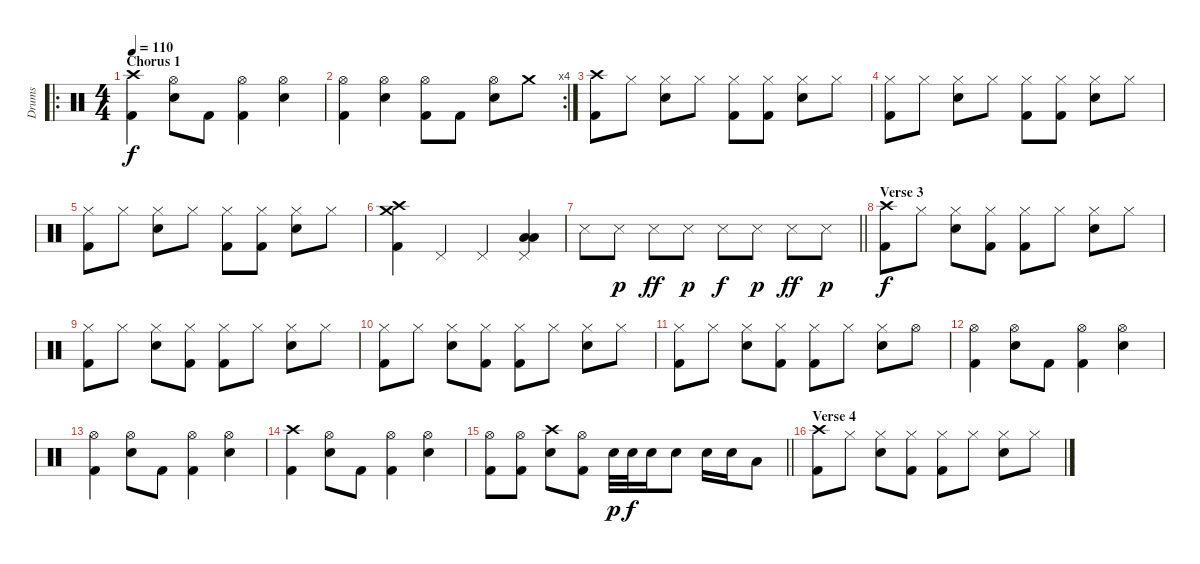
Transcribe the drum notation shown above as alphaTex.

\track ("Drums" "Drums") {instrument percussion bank 10}
\staff {score}
\articulation defaults
\ro
\ts (4 4)
\section ("" "Chorus 1")
\tempo 110
\clef neutral
\ks c
("Crash high (hit)" "Kick (hit) 2").4{dy f} ("Hi-Hat (open)" "Snare (hit) 2").8 "Kick (hit) 2".8 ("Hi-Hat (open)" "Kick (hit) 2").4 ("Hi-Hat (open)" "Snare (hit) 2").4 |
\rc 4
("Hi-Hat (open)" "Kick (hit) 2").4 ("Hi-Hat (open)" "Snare (hit) 2").4 ("Hi-Hat (open)" "Kick (hit) 2").8 "Kick (hit) 2".8 ("Hi-Hat (open)" "Snare (hit) 2").8 "Crash medium (hit)".8 |
("Kick (hit) 2" "Crash high (hit)").8 "Hi-Hat (closed)".8 ("Hi-Hat (closed)" "Snare (hit) 2").8 "Hi-Hat (closed)".8 ("Hi-Hat (closed)" "Kick (hit) 2").8 ("Hi-Hat (closed)" "Kick (hit) 2").8 ("Hi-Hat (closed)" "Snare (hit) 2").8 "Hi-Hat (closed)".8 |
("Kick (hit) 2" "Hi-Hat (closed)").8 "Hi-Hat (closed)".8 ("Hi-Hat (closed)" "Snare (hit) 2").8 "Hi-Hat (closed)".8 ("Hi-Hat (closed)" "Kick (hit) 2").8 ("Hi-Hat (closed)" "Kick (hit) 2").8 ("Hi-Hat (closed)" "Snare (hit) 2").8 "Hi-Hat (closed)".8 |
("Kick (hit) 2" "Hi-Hat (closed)").8 "Hi-Hat (closed)".8 ("Hi-Hat (closed)" "Snare (hit) 2").8 "Hi-Hat (closed)".8 ("Hi-Hat (closed)" "Kick (hit) 2").8 ("Hi-Hat (closed)" "Kick (hit) 2").8 ("Hi-Hat (closed)" "Snare (hit) 2").8 "Hi-Hat (closed)".8 |
("Kick (hit) 2" "Crash high (hit)" "Crash medium (hit)").4 "Pedal Hi-Hat (hit)".4 "Pedal Hi-Hat (hit)".4 ("Pedal Hi-Hat (hit)" "Low Tom (hit)" "Low Floor Tom (hit)").4 |
\barLineRight lightlight "Snare (side stick) 3".8 "Snare (side stick) 3".8{dy p} "Snare (side stick) 3".8{dy ff} "Snare (side stick) 3".8{dy p} "Snare (side stick) 3".8{dy f} "Snare (side stick) 3".8{dy p} "Snare (side stick) 3".8{dy ff} "Snare (side stick) 3".8{dy p}
|
\section ("" "Verse 3")
("Kick (hit) 2" "Crash high (hit)").8{dy f} "Hi-Hat (closed)".8 ("Hi-Hat (closed)" "Snare (hit) 2").8 ("Hi-Hat (closed)" "Kick (hit) 2").8 ("Hi-Hat (closed)" "Kick (hit) 2").8 "Hi-Hat (closed)".8 ("Hi-Hat (closed)" "Snare (hit) 2").8 "Hi-Hat (closed)".8 |
("Kick (hit) 2" "Hi-Hat (closed)").8 "Hi-Hat (closed)".8 ("Hi-Hat (closed)" "Snare (hit) 2").8 ("Hi-Hat (closed)" "Kick (hit) 2").8 ("Hi-Hat (closed)" "Kick (hit) 2").8 "Hi-Hat (closed)".8 ("Hi-Hat (closed)" "Snare (hit) 2").8 "Hi-Hat (closed)".8 |
("Kick (hit) 2" "Hi-Hat (closed)").8 "Hi-Hat (closed)".8 ("Hi-Hat (closed)" "Snare (hit) 2").8 ("Hi-Hat (closed)" "Kick (hit) 2").8 ("Hi-Hat (closed)" "Kick (hit) 2").8 "Hi-Hat (closed)".8 ("Hi-Hat (closed)" "Snare (hit) 2").8 "Hi-Hat (closed)".8 |
("Kick (hit) 2" "Hi-Hat (closed)").8 "Hi-Hat (closed)".8 ("Hi-Hat (closed)" "Snare (hit) 2").8 ("Hi-Hat (closed)" "Kick (hit) 2").8 ("Hi-Hat (closed)" "Kick (hit) 2").8 "Hi-Hat (closed)".8 ("Hi-Hat (closed)" "Snare (hit) 2").8 "Hi-Hat (open)".8 |
("Hi-Hat (open)" "Kick (hit) 2").4 ("Hi-Hat (open)" "Snare (hit) 2").8 "Kick (hit) 2".8 ("Hi-Hat (open)" "Kick (hit) 2").4 ("Hi-Hat (open)" "Snare (hit) 2").4 |
("Hi-Hat (open)" "Kick (hit) 2").4 ("Hi-Hat (open)" "Snare (hit) 2").8 "Kick (hit) 2".8 ("Hi-Hat (open)" "Kick (hit) 2").4 ("Hi-Hat (open)" "Snare (hit) 2").4 |
("Crash high (hit)" "Kick (hit) 2").4 ("Hi-Hat (open)" "Snare (hit) 2").8 "Kick (hit) 2".8 ("Hi-Hat (open)" "Kick (hit) 2").4 ("Hi-Hat (open)" "Snare (hit) 2").4 |
\barLineRight lightlight
("Kick (hit) 2" "Hi-Hat (open)").8 ("Kick (hit) 2" "Hi-Hat (open)").8 ("Crash high (hit)" "Snare (hit) 2").8 ("Hi-Hat (open)" "Kick (hit) 2").8 "Snare (hit) 2".32{dy p} "Snare (hit) 2".32{dy f} "Snare (hit) 2".16 "Snare (hit) 2".8 "Snare (hit) 2".16 "Snare (hit) 2".16 "Low Tom (hit)".8 |
\section ("" "Verse 4")
("Kick (hit) 2" "Crash high (hit)").8 "Hi-Hat (closed)".8 ("Hi-Hat (closed)" "Snare (hit) 2").8 ("Hi-Hat (closed)" "Kick (hit) 2").8 ("Hi-Hat (closed)" "Kick (hit) 2").8 "Hi-Hat (closed)".8 ("Hi-Hat (closed)" "Snare (hit) 2").8 "Hi-Hat (closed)".8
